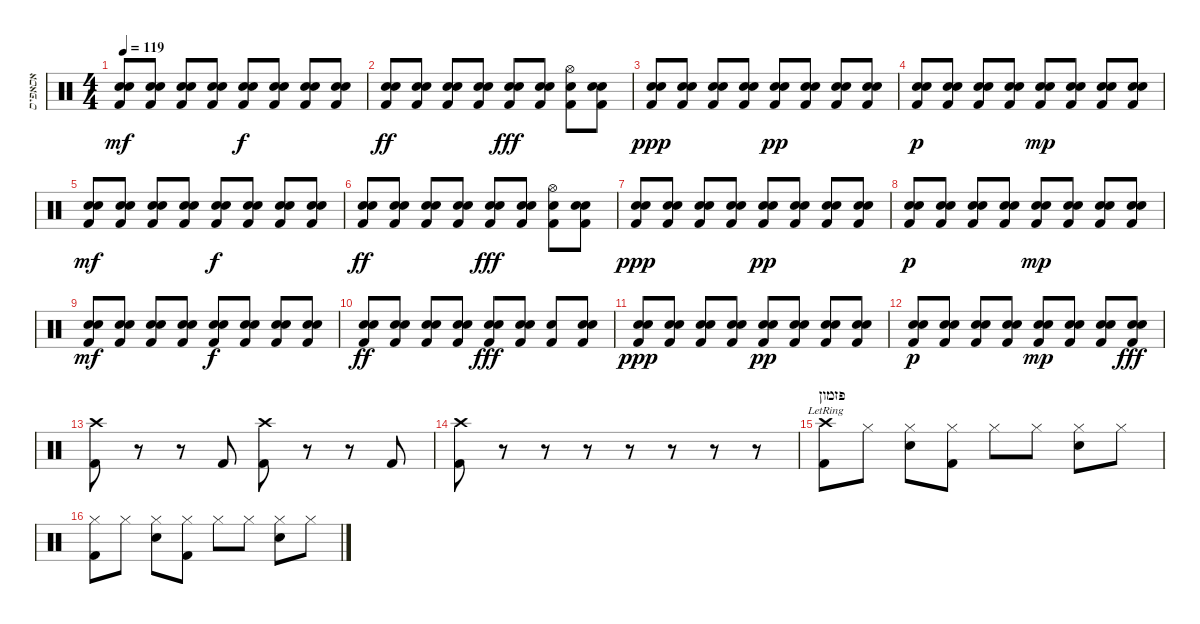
\track ("אסאפיס" "אסאפיס") {instrument percussion}
\staff {score}
\articulation defaults
\ts (4 4)
\tempo 119
\clef neutral
\ks c
("Snare (hit) 2" "Snare (hit) 2" "Kick (hit) 2").8{dy mf} ("Snare (hit) 2" "Snare (hit) 2" "Kick (hit) 2").8 ("Snare (hit) 2" "Snare (hit) 2" "Kick (hit) 2").8 ("Snare (hit) 2" "Snare (hit) 2" "Kick (hit) 2").8 ("Snare (hit) 2" "Snare (hit) 2" "Kick (hit) 2").8{dy f} ("Snare (hit) 2" "Snare (hit) 2" "Kick (hit) 2").8 ("Snare (hit) 2" "Snare (hit) 2" "Kick (hit) 2").8 ("Snare (hit) 2" "Snare (hit) 2" "Kick (hit) 2").8 |
("Snare (hit) 2" "Snare (hit) 2" "Kick (hit) 2").8{dy ff} ("Snare (hit) 2" "Snare (hit) 2" "Kick (hit) 2").8 ("Snare (hit) 2" "Snare (hit) 2" "Kick (hit) 2").8 ("Snare (hit) 2" "Snare (hit) 2" "Kick (hit) 2").8 ("Snare (hit) 2" "Snare (hit) 2" "Kick (hit) 2").8{dy fff} ("Snare (hit) 2" "Snare (hit) 2" "Kick (hit) 2").8 ("Hi-Hat (open)" "Snare (hit) 2" "Kick (hit) 2").8 ("Snare (hit) 2" "Snare (hit) 2" "Kick (hit) 2").8 |
("Snare (hit) 2" "Snare (hit) 2" "Kick (hit) 2").8{dy ppp} ("Snare (hit) 2" "Snare (hit) 2" "Kick (hit) 2").8 ("Snare (hit) 2" "Snare (hit) 2" "Kick (hit) 2").8 ("Snare (hit) 2" "Snare (hit) 2" "Kick (hit) 2").8 ("Snare (hit) 2" "Snare (hit) 2" "Kick (hit) 2").8{dy pp} ("Snare (hit) 2" "Snare (hit) 2" "Kick (hit) 2").8 ("Snare (hit) 2" "Snare (hit) 2" "Kick (hit) 2").8 ("Snare (hit) 2" "Snare (hit) 2" "Kick (hit) 2").8 |
("Snare (hit) 2" "Snare (hit) 2" "Kick (hit) 2").8{dy p} ("Snare (hit) 2" "Snare (hit) 2" "Kick (hit) 2").8 ("Snare (hit) 2" "Snare (hit) 2" "Kick (hit) 2").8 ("Snare (hit) 2" "Snare (hit) 2" "Kick (hit) 2").8 ("Snare (hit) 2" "Snare (hit) 2" "Kick (hit) 2").8{dy mp} ("Snare (hit) 2" "Snare (hit) 2" "Kick (hit) 2").8 ("Snare (hit) 2" "Snare (hit) 2" "Kick (hit) 2").8 ("Snare (hit) 2" "Snare (hit) 2" "Kick (hit) 2").8 |
("Snare (hit) 2" "Snare (hit) 2" "Kick (hit) 2").8{dy mf} ("Snare (hit) 2" "Snare (hit) 2" "Kick (hit) 2").8 ("Snare (hit) 2" "Snare (hit) 2" "Kick (hit) 2").8 ("Snare (hit) 2" "Snare (hit) 2" "Kick (hit) 2").8 ("Snare (hit) 2" "Snare (hit) 2" "Kick (hit) 2").8{dy f} ("Snare (hit) 2" "Snare (hit) 2" "Kick (hit) 2").8 ("Snare (hit) 2" "Snare (hit) 2" "Kick (hit) 2").8 ("Snare (hit) 2" "Snare (hit) 2" "Kick (hit) 2").8 |
("Snare (hit) 2" "Snare (hit) 2" "Kick (hit) 2").8{dy ff} ("Snare (hit) 2" "Snare (hit) 2" "Kick (hit) 2").8 ("Snare (hit) 2" "Snare (hit) 2" "Kick (hit) 2").8 ("Snare (hit) 2" "Snare (hit) 2" "Kick (hit) 2").8 ("Snare (hit) 2" "Snare (hit) 2" "Kick (hit) 2").8{dy fff} ("Snare (hit) 2" "Snare (hit) 2" "Kick (hit) 2").8 ("Hi-Hat (open)" "Snare (hit) 2" "Kick (hit) 2").8 ("Snare (hit) 2" "Snare (hit) 2" "Kick (hit) 2").8 |
("Snare (hit) 2" "Snare (hit) 2" "Kick (hit) 2").8{dy ppp} ("Snare (hit) 2" "Snare (hit) 2" "Kick (hit) 2").8 ("Snare (hit) 2" "Snare (hit) 2" "Kick (hit) 2").8 ("Snare (hit) 2" "Snare (hit) 2" "Kick (hit) 2").8 ("Snare (hit) 2" "Snare (hit) 2" "Kick (hit) 2").8{dy pp} ("Snare (hit) 2" "Snare (hit) 2" "Kick (hit) 2").8 ("Snare (hit) 2" "Snare (hit) 2" "Kick (hit) 2").8 ("Snare (hit) 2" "Snare (hit) 2" "Kick (hit) 2").8 |
("Snare (hit) 2" "Snare (hit) 2" "Kick (hit) 2").8{dy p} ("Snare (hit) 2" "Snare (hit) 2" "Kick (hit) 2").8 ("Snare (hit) 2" "Snare (hit) 2" "Kick (hit) 2").8 ("Snare (hit) 2" "Snare (hit) 2" "Kick (hit) 2").8 ("Snare (hit) 2" "Snare (hit) 2" "Kick (hit) 2").8{dy mp} ("Snare (hit) 2" "Snare (hit) 2" "Kick (hit) 2").8 ("Snare (hit) 2" "Snare (hit) 2" "Kick (hit) 2").8 ("Snare (hit) 2" "Snare (hit) 2" "Kick (hit) 2").8 |
("Snare (hit) 2" "Snare (hit) 2" "Kick (hit) 2").8{dy mf} ("Snare (hit) 2" "Snare (hit) 2" "Kick (hit) 2").8 ("Snare (hit) 2" "Snare (hit) 2" "Kick (hit) 2").8 ("Snare (hit) 2" "Snare (hit) 2" "Kick (hit) 2").8 ("Snare (hit) 2" "Snare (hit) 2" "Kick (hit) 2").8{dy f} ("Snare (hit) 2" "Snare (hit) 2" "Kick (hit) 2").8 ("Snare (hit) 2" "Snare (hit) 2" "Kick (hit) 2").8 ("Snare (hit) 2" "Snare (hit) 2" "Kick (hit) 2").8 |
("Snare (hit) 2" "Snare (hit) 2" "Kick (hit) 2").8{dy ff} ("Snare (hit) 2" "Snare (hit) 2" "Kick (hit) 2").8 ("Snare (hit) 2" "Snare (hit) 2" "Kick (hit) 2").8 ("Snare (hit) 2" "Snare (hit) 2" "Kick (hit) 2").8 ("Snare (hit) 2" "Snare (hit) 2" "Kick (hit) 2").8{dy fff} ("Snare (hit) 2" "Snare (hit) 2" "Kick (hit) 2").8 ("Snare (hit) 2" "Kick (hit) 2").8 ("Snare (hit) 2" "Snare (hit) 2" "Kick (hit) 2").8 |
("Snare (hit) 2" "Snare (hit) 2" "Kick (hit) 2").8{dy ppp} ("Snare (hit) 2" "Snare (hit) 2" "Kick (hit) 2").8 ("Snare (hit) 2" "Snare (hit) 2" "Kick (hit) 2").8 ("Snare (hit) 2" "Snare (hit) 2" "Kick (hit) 2").8 ("Snare (hit) 2" "Snare (hit) 2" "Kick (hit) 2").8{dy pp} ("Snare (hit) 2" "Snare (hit) 2" "Kick (hit) 2").8 ("Snare (hit) 2" "Snare (hit) 2" "Kick (hit) 2").8 ("Snare (hit) 2" "Snare (hit) 2" "Kick (hit) 2").8 |
("Snare (hit) 2" "Snare (hit) 2" "Kick (hit) 2").8{dy p} ("Snare (hit) 2" "Snare (hit) 2" "Kick (hit) 2").8 ("Snare (hit) 2" "Snare (hit) 2" "Kick (hit) 2").8 ("Snare (hit) 2" "Snare (hit) 2" "Kick (hit) 2").8 ("Snare (hit) 2" "Snare (hit) 2" "Kick (hit) 2").8{dy mp} ("Snare (hit) 2" "Snare (hit) 2" "Kick (hit) 2").8 ("Snare (hit) 2" "Snare (hit) 2" "Kick (hit) 2").8 ("Snare (hit) 2" "Snare (hit) 2" "Kick (hit) 2").8{dy fff} |
("Crash high (hit)" "Kick (hit) 2").8 r.8 r.8 "Kick (hit) 2".8 ("Crash high (hit)" "Kick (hit) 2").8 r.8 r.8 "Kick (hit) 2".8 |
("Crash high (hit)" "Kick (hit) 2").8 r.8 r.8 r.8 r.8 r.8 r.8 r.8 |
\section ("" "פזמון")
("Crash high (hit)"{lr} "Kick (hit) 2").8 "Hi-Hat (closed)".8 ("Hi-Hat (closed)" "Snare (hit) 2").8 ("Hi-Hat (closed)" "Kick (hit) 2").8 "Hi-Hat (closed)".8 "Hi-Hat (closed)".8 ("Hi-Hat (closed)" "Snare (hit) 2").8 "Hi-Hat (closed)".8 |
("Hi-Hat (closed)" "Kick (hit) 2").8 "Hi-Hat (closed)".8 ("Hi-Hat (closed)" "Snare (hit) 2").8 ("Hi-Hat (closed)" "Kick (hit) 2").8 "Hi-Hat (closed)".8 "Hi-Hat (closed)".8 ("Hi-Hat (closed)" "Snare (hit) 2").8 "Hi-Hat (closed)".8
